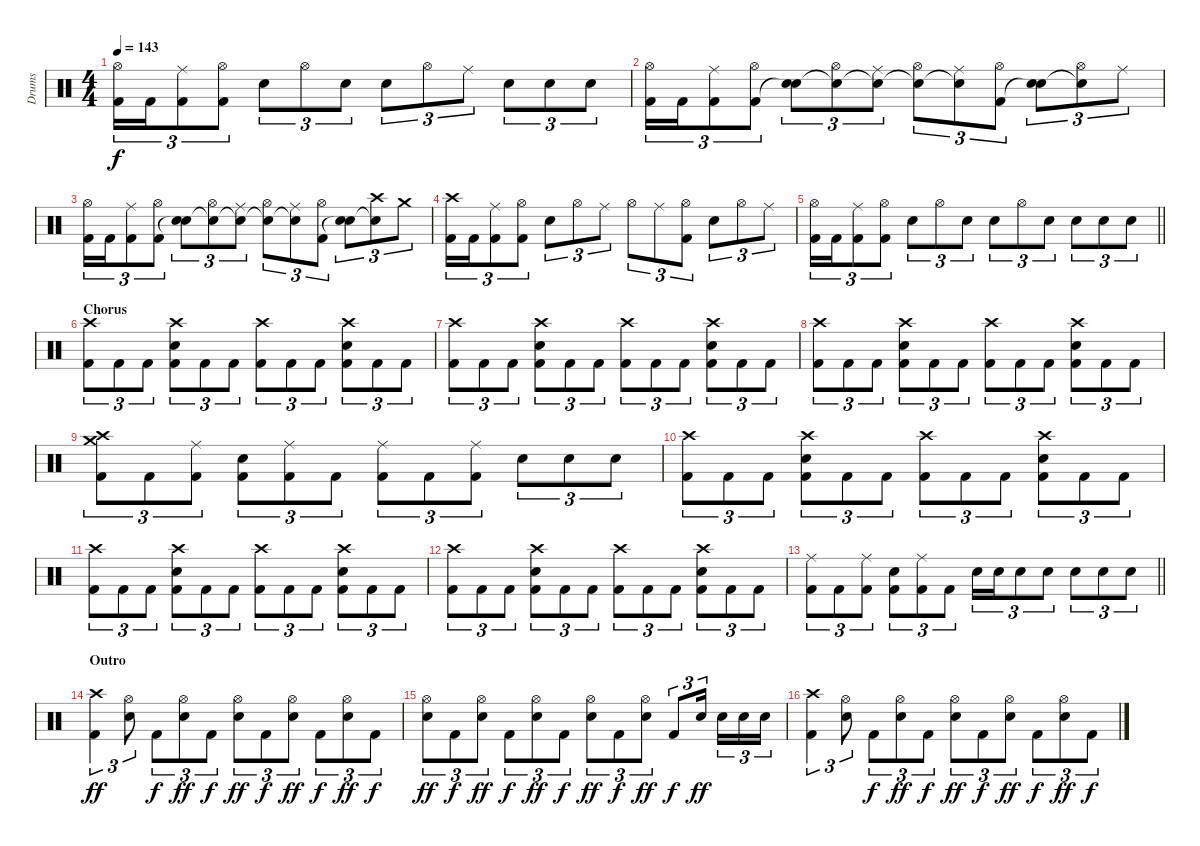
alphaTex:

\track ("Drums" "Drums") {instrument percussion}
\staff {score}
\articulation defaults
\ts (4 4)
\tempo 143
\clef neutral
\ks c
("Hi-Hat (open)" "Kick (hit) 2").16{tu (3 2) dy f} "Kick (hit) 2".16{tu (3 2)} ("Ride (middle)" "Kick (hit) 2").8{tu (3 2)} ("Hi-Hat (open)" "Kick (hit) 2").8{tu (3 2)} "Snare (hit) 2".8{tu (3 2)} "Hi-Hat (open)".8{tu (3 2)} "Snare (hit) 2".8{tu (3 2)} "Snare (hit) 2".8{tu (3 2)} "Hi-Hat (open)".8{tu (3 2)} "Ride (middle)".8{tu (3 2)} "Snare (hit) 2".8{tu (3 2)} "Snare (hit) 2".8{tu (3 2)} "Snare (hit) 2".8{tu (3 2)} |
("Hi-Hat (open)" "Kick (hit) 2").16{tu (3 2)} "Kick (hit) 2".16{tu (3 2)} ("Ride (middle)" "Kick (hit) 2").8{tu (3 2)} ("Hi-Hat (open)" "Kick (hit) 2").8{tu (3 2)} ("Snare (hit) 2" "Snare (hit)"{t}).8{tu (3 2)} ("Hi-Hat (open)" "Snare (hit)"{t}).8{tu (3 2)} ("Ride (middle)" "Snare (hit)"{t}).8{tu (3 2)} ("Hi-Hat (open)" "Snare (hit)"{t}).8{tu (3 2)} ("Ride (middle)" "Snare (hit)"{t}).8{tu (3 2)} ("Hi-Hat (open)" "Kick (hit) 2").8{tu (3 2)} ("Snare (hit) 2" "Snare (hit)"{t}).8{tu (3 2)} ("Hi-Hat (open)" "Snare (hit)"{t}).8{tu (3 2)} "Ride (middle)".8{tu (3 2)} |
("Hi-Hat (open)" "Kick (hit) 2").16{tu (3 2)} "Kick (hit) 2".16{tu (3 2)} ("Ride (middle)" "Kick (hit) 2").8{tu (3 2)} ("Hi-Hat (open)" "Kick (hit) 2").8{tu (3 2)} ("Snare (hit) 2" "Snare (hit)"{t}).8{tu (3 2)} ("Hi-Hat (open)" "Snare (hit)"{t}).8{tu (3 2)} ("Ride (middle)" "Snare (hit)"{t}).8{tu (3 2)} ("Hi-Hat (open)" "Snare (hit)"{t}).8{tu (3 2)} ("Ride (middle)" "Snare (hit)"{t}).8{tu (3 2)} ("Hi-Hat (open)" "Kick (hit) 2").8{tu (3 2)} ("Snare (hit) 2" "Snare (hit)"{t}).8{tu (3 2)} ("Crash high (hit)" "Snare (hit)"{t}).8{tu (3 2)} "Crash medium (hit)".8{tu (3 2)} |
("Crash high (hit)" "Kick (hit) 2").16{tu (3 2)} "Kick (hit) 2".16{tu (3 2)} ("Ride (middle)" "Kick (hit) 2").8{tu (3 2)} ("Hi-Hat (open)" "Kick (hit) 2").8{tu (3 2)} "Snare (hit) 2".8{tu (3 2)} "Hi-Hat (open)".8{tu (3 2)} "Ride (middle)".8{tu (3 2)} "Hi-Hat (open)".8{tu (3 2)} "Ride (middle)".8{tu (3 2)} ("Hi-Hat (open)" "Kick (hit) 2").8{tu (3 2)} "Snare (hit) 2".8{tu (3 2)} "Hi-Hat (open)".8{tu (3 2)} "Ride (middle)".8{tu (3 2)} |
\barLineRight lightlight
("Hi-Hat (open)" "Kick (hit) 2").16{tu (3 2)} "Kick (hit) 2".16{tu (3 2)} ("Ride (middle)" "Kick (hit) 2").8{tu (3 2)} ("Hi-Hat (open)" "Kick (hit) 2").8{tu (3 2)} "Snare (hit) 2".8{tu (3 2)} "Hi-Hat (open)".8{tu (3 2)} "Snare (hit) 2".8{tu (3 2)} "Snare (hit) 2".8{tu (3 2)} "Hi-Hat (open)".8{tu (3 2)} "Snare (hit) 2".8{tu (3 2)} "Snare (hit) 2".8{tu (3 2)} "Snare (hit) 2".8{tu (3 2)} "Snare (hit) 2".8{tu (3 2)} |
\section ("" "Chorus")
("Crash high (hit)" "Kick (hit) 2").8{tu (3 2)} "Kick (hit) 2".8{tu (3 2)} "Kick (hit) 2".8{tu (3 2)} ("Crash high (hit)" "Snare (hit) 2" "Kick (hit) 2").8{tu (3 2)} "Kick (hit) 2".8{tu (3 2)} "Kick (hit) 2".8{tu (3 2)} ("Crash high (hit)" "Kick (hit) 2").8{tu (3 2)} "Kick (hit) 2".8{tu (3 2)} "Kick (hit) 2".8{tu (3 2)} ("Crash high (hit)" "Snare (hit) 2" "Kick (hit) 2").8{tu (3 2)} "Kick (hit) 2".8{tu (3 2)} "Kick (hit) 2".8{tu (3 2)} |
("Crash high (hit)" "Kick (hit) 2").8{tu (3 2)} "Kick (hit) 2".8{tu (3 2)} "Kick (hit) 2".8{tu (3 2)} ("Crash high (hit)" "Snare (hit) 2" "Kick (hit) 2").8{tu (3 2)} "Kick (hit) 2".8{tu (3 2)} "Kick (hit) 2".8{tu (3 2)} ("Crash high (hit)" "Kick (hit) 2").8{tu (3 2)} "Kick (hit) 2".8{tu (3 2)} "Kick (hit) 2".8{tu (3 2)} ("Crash high (hit)" "Snare (hit) 2" "Kick (hit) 2").8{tu (3 2)} "Kick (hit) 2".8{tu (3 2)} "Kick (hit) 2".8{tu (3 2)} |
("Crash high (hit)" "Kick (hit) 2").8{tu (3 2)} "Kick (hit) 2".8{tu (3 2)} "Kick (hit) 2".8{tu (3 2)} ("Crash high (hit)" "Snare (hit) 2" "Kick (hit) 2").8{tu (3 2)} "Kick (hit) 2".8{tu (3 2)} "Kick (hit) 2".8{tu (3 2)} ("Crash high (hit)" "Kick (hit) 2").8{tu (3 2)} "Kick (hit) 2".8{tu (3 2)} "Kick (hit) 2".8{tu (3 2)} ("Crash high (hit)" "Snare (hit) 2" "Kick (hit) 2").8{tu (3 2)} "Kick (hit) 2".8{tu (3 2)} "Kick (hit) 2".8{tu (3 2)} |
("Crash high (hit)" "Crash medium (hit)" "Kick (hit) 2").8{tu (3 2)} "Kick (hit) 2".8{tu (3 2)} ("Ride (middle)" "Kick (hit) 2").8{tu (3 2)} ("Snare (hit) 2" "Kick (hit) 2").8{tu (3 2)} ("Ride (middle)" "Kick (hit) 2").8{tu (3 2)} "Kick (hit) 2".8{tu (3 2)} ("Ride (middle)" "Kick (hit) 2").8{tu (3 2)} "Kick (hit) 2".8{tu (3 2)} ("Ride (middle)" "Kick (hit) 2").8{tu (3 2)} "Snare (hit) 2".8{tu (3 2)} "Snare (hit) 2".8{tu (3 2)} "Snare (hit) 2".8{tu (3 2)} |
("Crash high (hit)" "Kick (hit) 2").8{tu (3 2)} "Kick (hit) 2".8{tu (3 2)} "Kick (hit) 2".8{tu (3 2)} ("Crash high (hit)" "Snare (hit) 2" "Kick (hit) 2").8{tu (3 2)} "Kick (hit) 2".8{tu (3 2)} "Kick (hit) 2".8{tu (3 2)} ("Crash high (hit)" "Kick (hit) 2").8{tu (3 2)} "Kick (hit) 2".8{tu (3 2)} "Kick (hit) 2".8{tu (3 2)} ("Crash high (hit)" "Snare (hit) 2" "Kick (hit) 2").8{tu (3 2)} "Kick (hit) 2".8{tu (3 2)} "Kick (hit) 2".8{tu (3 2)} |
("Crash high (hit)" "Kick (hit) 2").8{tu (3 2)} "Kick (hit) 2".8{tu (3 2)} "Kick (hit) 2".8{tu (3 2)} ("Crash high (hit)" "Snare (hit) 2" "Kick (hit) 2").8{tu (3 2)} "Kick (hit) 2".8{tu (3 2)} "Kick (hit) 2".8{tu (3 2)} ("Crash high (hit)" "Kick (hit) 2").8{tu (3 2)} "Kick (hit) 2".8{tu (3 2)} "Kick (hit) 2".8{tu (3 2)} ("Crash high (hit)" "Snare (hit) 2" "Kick (hit) 2").8{tu (3 2)} "Kick (hit) 2".8{tu (3 2)} "Kick (hit) 2".8{tu (3 2)} |
("Crash high (hit)" "Kick (hit) 2").8{tu (3 2)} "Kick (hit) 2".8{tu (3 2)} "Kick (hit) 2".8{tu (3 2)} ("Crash high (hit)" "Snare (hit) 2" "Kick (hit) 2").8{tu (3 2)} "Kick (hit) 2".8{tu (3 2)} "Kick (hit) 2".8{tu (3 2)} ("Crash high (hit)" "Kick (hit) 2").8{tu (3 2)} "Kick (hit) 2".8{tu (3 2)} "Kick (hit) 2".8{tu (3 2)} ("Crash high (hit)" "Snare (hit) 2" "Kick (hit) 2").8{tu (3 2)} "Kick (hit) 2".8{tu (3 2)} "Kick (hit) 2".8{tu (3 2)} |
\barLineRight lightlight
("Ride (middle)" "Kick (hit) 2").8{tu (3 2)} "Kick (hit) 2".8{tu (3 2)} ("Ride (middle)" "Kick (hit) 2").8{tu (3 2)} ("Snare (hit) 2" "Kick (hit) 2").8{tu (3 2)} ("Ride (middle)" "Kick (hit) 2").8{tu (3 2)} "Kick (hit) 2".8{tu (3 2)} "Snare (hit) 2".16{tu (3 2)} "Snare (hit) 2".16{tu (3 2)} "Snare (hit) 2".8{tu (3 2)} "Snare (hit) 2".8{tu (3 2)} "Snare (hit) 2".8{tu (3 2)} "Snare (hit) 2".8{tu (3 2)} "Snare (hit) 2".8{tu (3 2)} |
\section ("" "Outro")
("Crash high (hit)" "Kick (hit) 2").4{tu (3 2) dy ff} ("Hi-Hat (open)" "Snare (hit) 2").8{tu (3 2)} "Kick (hit) 2".8{tu (3 2) dy f} ("Hi-Hat (open)" "Snare (hit) 2").8{tu (3 2) dy ff} "Kick (hit) 2".8{tu (3 2) dy f} ("Hi-Hat (open)" "Snare (hit) 2").8{tu (3 2) dy ff} "Kick (hit) 2".8{tu (3 2) dy f} ("Hi-Hat (open)" "Snare (hit) 2").8{tu (3 2) dy ff} "Kick (hit) 2".8{tu (3 2) dy f} ("Hi-Hat (open)" "Snare (hit) 2").8{tu (3 2) dy ff} "Kick (hit) 2".8{tu (3 2) dy f} |
("Hi-Hat (open)" "Snare (hit) 2").8{tu (3 2) dy ff} "Kick (hit) 2".8{tu (3 2) dy f} ("Hi-Hat (open)" "Snare (hit) 2").8{tu (3 2) dy ff} "Kick (hit) 2".8{tu (3 2) dy f} ("Hi-Hat (open)" "Snare (hit) 2").8{tu (3 2) dy ff} "Kick (hit) 2".8{tu (3 2) dy f} ("Hi-Hat (open)" "Snare (hit) 2").8{tu (3 2) dy ff} "Kick (hit) 2".8{tu (3 2) dy f} ("Hi-Hat (open)" "Snare (hit) 2").8{tu (3 2) dy ff} "Kick (hit) 2".8{tu (3 2) dy f} "Snare (hit) 2".16{tu (3 2) dy ff beam splitsecondary} "Snare (hit) 2".16{tu (3 2)} "Snare (hit) 2".16{tu (3 2)} "Snare (hit) 2".16{tu (3 2)} |
("Crash high (hit)" "Kick (hit) 2").4{tu (3 2)} ("Hi-Hat (open)" "Snare (hit) 2").8{tu (3 2)} "Kick (hit) 2".8{tu (3 2) dy f} ("Hi-Hat (open)" "Snare (hit) 2").8{tu (3 2) dy ff} "Kick (hit) 2".8{tu (3 2) dy f} ("Hi-Hat (open)" "Snare (hit) 2").8{tu (3 2) dy ff} "Kick (hit) 2".8{tu (3 2) dy f} ("Hi-Hat (open)" "Snare (hit) 2").8{tu (3 2) dy ff} "Kick (hit) 2".8{tu (3 2) dy f} ("Hi-Hat (open)" "Snare (hit) 2").8{tu (3 2) dy ff} "Kick (hit) 2".8{tu (3 2) dy f}
